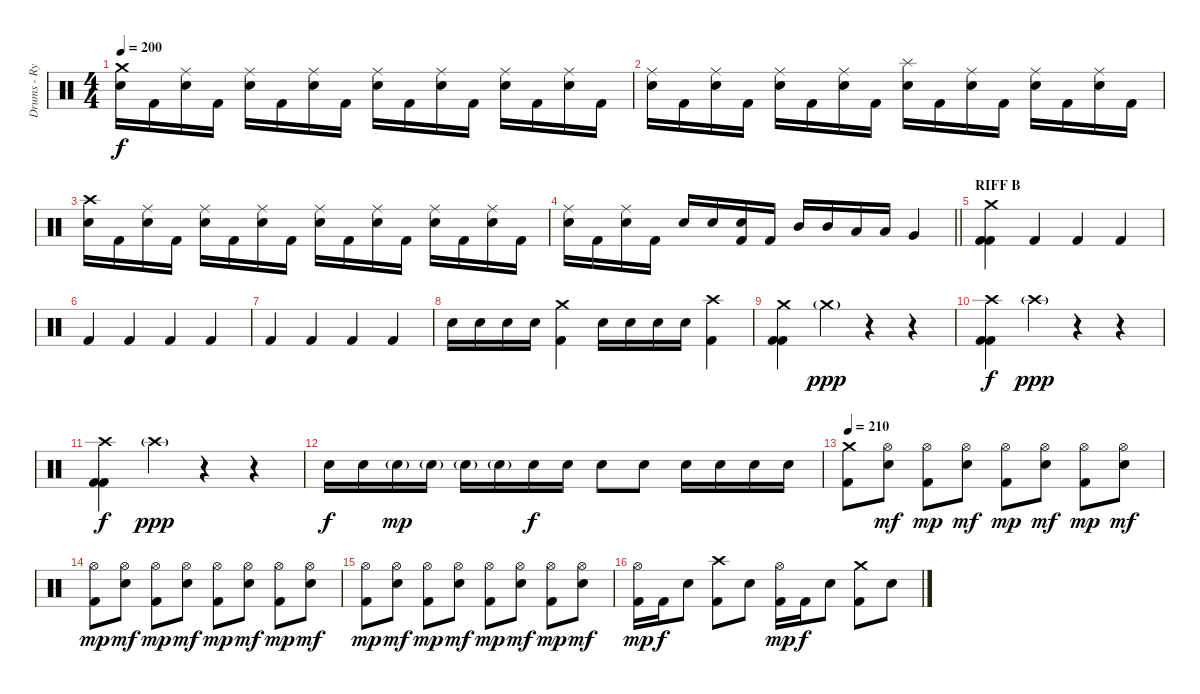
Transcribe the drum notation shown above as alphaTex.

\track ("Drums - Ryan Bates" "Drums - Ry") {instrument percussion}
\staff {score}
\articulation defaults
\ts (4 4)
\tempo 200
\clef neutral
\ks c
("Crash medium (hit)" "Snare (hit) 2").16{dy f} "Kick (hit) 2".16 ("Ride (middle)" "Snare (hit) 2").16 "Kick (hit) 2".16 ("Ride (middle)" "Snare (hit) 2").16 "Kick (hit) 2".16 ("Ride (middle)" "Snare (hit) 2").16 "Kick (hit) 2".16 ("Ride (middle)" "Snare (hit) 2").16 "Kick (hit) 2".16 ("Ride (middle)" "Snare (hit) 2").16 "Kick (hit) 2".16 ("Ride (middle)" "Snare (hit) 2").16 "Kick (hit) 2".16 ("Ride (middle)" "Snare (hit) 2").16 "Kick (hit) 2".16 |
("Ride (middle)" "Snare (hit) 2").16 "Kick (hit) 2".16 ("Ride (middle)" "Snare (hit) 2").16 "Kick (hit) 2".16 ("Ride (middle)" "Snare (hit) 2").16 "Kick (hit) 2".16 ("Ride (middle)" "Snare (hit) 2").16 "Kick (hit) 2".16 ("Splash (hit)" "Snare (hit) 2").16 "Kick (hit) 2".16 ("Ride (middle)" "Snare (hit) 2").16 "Kick (hit) 2".16 ("Ride (middle)" "Snare (hit) 2").16 "Kick (hit) 2".16 ("Ride (middle)" "Snare (hit) 2").16 "Kick (hit) 2".16 |
("Crash high (hit)" "Snare (hit) 2").16 "Kick (hit) 2".16 ("Ride (middle)" "Snare (hit) 2").16 "Kick (hit) 2".16 ("Ride (middle)" "Snare (hit) 2").16 "Kick (hit) 2".16 ("Ride (middle)" "Snare (hit) 2").16 "Kick (hit) 2".16 ("Ride (middle)" "Snare (hit) 2").16 "Kick (hit) 2".16 ("Ride (middle)" "Snare (hit) 2").16 "Kick (hit) 2".16 ("Ride (middle)" "Snare (hit) 2").16 "Kick (hit) 2".16 ("Ride (middle)" "Snare (hit) 2").16 "Kick (hit) 2".16 |
\barLineRight lightlight
("Ride (middle)" "Snare (hit) 2").16 "Kick (hit) 2".16 ("Ride (middle)" "Snare (hit) 2").16 "Kick (hit) 2".16 "Snare (hit) 2".16 "Snare (hit) 2".16 ("Snare (hit) 2" "Kick (hit) 2").16 "Kick (hit) 2".16 "Mid Tom (hit)".16 "Mid Tom (hit)".16 "Low Tom (hit)".16 "Low Tom (hit)".16 "Very Low Tom (hit)".4 |
\section ("" "RIFF B")
("Crash medium (hit)" "Kick (hit) 2" "Kick (hit) 2").4 "Kick (hit) 2".4 "Kick (hit) 2".4 "Kick (hit) 2".4 |
"Kick (hit) 2".4 "Kick (hit) 2".4 "Kick (hit) 2".4 "Kick (hit) 2".4 |
"Kick (hit) 2".4 "Kick (hit) 2".4 "Kick (hit) 2".4 "Kick (hit) 2".4 |
"Snare (hit) 2".16 "Snare (hit) 2".16 "Snare (hit) 2".16 "Snare (hit) 2".16 ("Crash medium (hit)" "Kick (hit) 2").4 "Snare (hit) 2".16 "Snare (hit) 2".16 "Snare (hit) 2".16 "Snare (hit) 2".16 ("Crash high (hit)" "Kick (hit) 2").4 |
("Crash medium (hit)" "Kick (hit) 2" "Kick (hit) 2").4{volume 13} "Crash medium (hit)"{g}.4{dy ppp volume 0} r.4 r.4 |
("Crash high (hit)" "Kick (hit) 2" "Kick (hit) 2").4{dy f volume 13} "Crash high (hit)"{g}.4{dy ppp volume 0} r.4 r.4 |
("Crash high (hit)" "Kick (hit) 2" "Kick (hit) 2").4{dy f volume 13} "Crash high (hit)"{g}.4{dy ppp volume 0} r.4 r.4 |
"Snare (hit) 2".16{dy f volume 13} "Snare (hit) 2".16 "Snare (hit) 2"{g}.16{dy mp} "Snare (hit) 2"{g}.16 "Snare (hit) 2"{g}.16 "Snare (hit) 2"{g}.16 "Snare (hit) 2".16{dy f} "Snare (hit) 2".16 "Snare (hit) 2".8 "Snare (hit) 2".8 "Snare (hit) 2".16 "Snare (hit) 2".16 "Snare (hit) 2".16 "Snare (hit) 2".16 |
\tempo 210
("Crash medium (hit)" "Kick (hit) 2").8 ("Hi-Hat (open)" "Snare (hit) 2").8{dy mf} ("Hi-Hat (open)" "Kick (hit) 2").8{dy mp} ("Hi-Hat (open)" "Snare (hit) 2").8{dy mf} ("Hi-Hat (open)" "Kick (hit) 2").8{dy mp} ("Hi-Hat (open)" "Snare (hit) 2").8{dy mf} ("Hi-Hat (open)" "Kick (hit) 2").8{dy mp} ("Hi-Hat (open)" "Snare (hit) 2").8{dy mf} |
("Hi-Hat (open)" "Kick (hit) 2").8{dy mp} ("Hi-Hat (open)" "Snare (hit) 2").8{dy mf} ("Hi-Hat (open)" "Kick (hit) 2").8{dy mp} ("Hi-Hat (open)" "Snare (hit) 2").8{dy mf} ("Hi-Hat (open)" "Kick (hit) 2").8{dy mp} ("Hi-Hat (open)" "Snare (hit) 2").8{dy mf} ("Hi-Hat (open)" "Kick (hit) 2").8{dy mp} ("Hi-Hat (open)" "Snare (hit) 2").8{dy mf} |
("Hi-Hat (open)" "Kick (hit) 2").8{dy mp} ("Hi-Hat (open)" "Snare (hit) 2").8{dy mf} ("Hi-Hat (open)" "Kick (hit) 2").8{dy mp} ("Hi-Hat (open)" "Snare (hit) 2").8{dy mf} ("Hi-Hat (open)" "Kick (hit) 2").8{dy mp} ("Hi-Hat (open)" "Snare (hit) 2").8{dy mf} ("Hi-Hat (open)" "Kick (hit) 2").8{dy mp} ("Hi-Hat (open)" "Snare (hit) 2").8{dy mf} |
("Hi-Hat (open)" "Kick (hit) 2").16{dy mp} "Kick (hit) 2".16{dy f} "Snare (hit) 2".8 ("Crash high (hit)" "Kick (hit) 2").8 "Snare (hit) 2".8 ("Hi-Hat (open)" "Kick (hit) 2").16{dy mp} "Kick (hit) 2".16{dy f} "Snare (hit) 2".8 ("Crash medium (hit)" "Kick (hit) 2").8 "Snare (hit) 2".8
